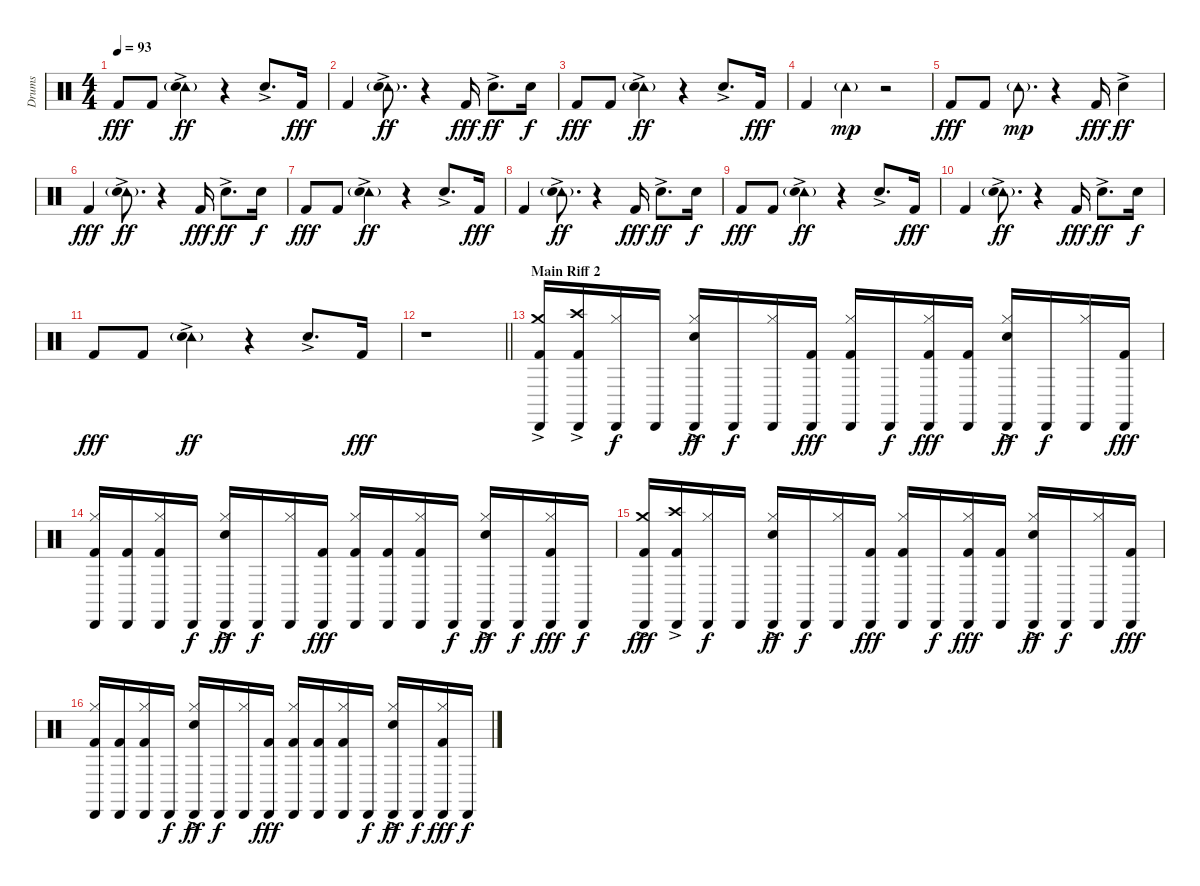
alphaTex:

\track ("Drums" "Drums") {instrument percussion}
\staff {score}
\articulation defaults
\ts (4 4)
\tempo 93
\clef neutral
\ks c "Kick (hit) 2".8{dy fff} "Kick (hit) 2".8
("Tambourine (hit)"{g} "Electric Snare (hit)"{ac}).4{dy ff} r.4 "Electric Snare (hit)"{ac}.8{d} "Kick (hit) 2".16{dy fff} |
"Kick (hit) 2".4 ("Tambourine (hit)"{g} "Electric Snare (hit)"{ac}).8{d dy ff} r.4 "Kick (hit) 2".16{dy fff} "Electric Snare (hit)"{ac}.8{d dy ff} "Electric Snare (hit)".16{dy f} |
"Kick (hit) 2".8{dy fff} "Kick (hit) 2".8 ("Tambourine (hit)"{g} "Electric Snare (hit)"{ac}).4{dy ff} r.4 "Electric Snare (hit)"{ac}.8{d} "Kick (hit) 2".16{dy fff} |
"Kick (hit) 2".4 "Tambourine (hit)"{g}.4{dy mp} r.2 |
"Kick (hit) 2".8{dy fff} "Kick (hit) 2".8 "Tambourine (hit)"{g}.8{d dy mp} r.4 "Kick (hit) 2".16{dy fff} "Electric Snare (hit)"{ac}.4{dy ff} |
"Kick (hit) 2".4{dy fff} ("Tambourine (hit)"{g} "Electric Snare (hit)"{ac}).8{d dy ff} r.4 "Kick (hit) 2".16{dy fff} "Electric Snare (hit)"{ac}.8{d dy ff} "Electric Snare (hit)".16{dy f} |
"Kick (hit) 2".8{dy fff} "Kick (hit) 2".8 ("Tambourine (hit)"{g} "Electric Snare (hit)"{ac}).4{dy ff} r.4 "Electric Snare (hit)"{ac}.8{d} "Kick (hit) 2".16{dy fff} |
"Kick (hit) 2".4 ("Tambourine (hit)"{g} "Electric Snare (hit)"{ac}).8{d dy ff} r.4 "Kick (hit) 2".16{dy fff} "Electric Snare (hit)"{ac}.8{d dy ff} "Electric Snare (hit)".16{dy f} |
"Kick (hit) 2".8{dy fff} "Kick (hit) 2".8 ("Tambourine (hit)"{g} "Electric Snare (hit)"{ac}).4{dy ff} r.4 "Electric Snare (hit)"{ac}.8{d} "Kick (hit) 2".16{dy fff} |
"Kick (hit) 2".4 ("Tambourine (hit)"{g} "Electric Snare (hit)"{ac}).8{d dy ff} r.4 "Kick (hit) 2".16{dy fff} "Electric Snare (hit)"{ac}.8{d dy ff} "Electric Snare (hit)".16{dy f} |
"Kick (hit) 2".8{dy fff} "Kick (hit) 2".8 ("Tambourine (hit)"{g} "Electric Snare (hit)"{ac}).4{dy ff} r.4 "Electric Snare (hit)"{ac}.8{d} "Kick (hit) 2".16{dy fff} |
\barLineRight lightlight
r.1 |
\section ("" "Main Riff 2")
("Crash medium (hit)"{ac} "Cabasa (hit)" "Kick (hit) 2").16 ("Crash high (hit)"{ac} "Cabasa (hit)" "Kick (hit) 2").16 ("Cabasa (hit)" "Hi-Hat (closed)").16{dy f} "Cabasa (hit)".16 ("Cabasa (hit)" "Hi-Hat (closed)" "Electric Snare (hit)"{ac}).16{dy ff} "Cabasa (hit)".16{dy f} ("Cabasa (hit)" "Hi-Hat (closed)").16 ("Cabasa (hit)" "Kick (hit) 2").16{dy fff} ("Cabasa (hit)" "Hi-Hat (closed)" "Kick (hit) 2").16 "Cabasa (hit)".16{dy f} ("Cabasa (hit)" "Hi-Hat (closed)" "Kick (hit) 2").16{dy fff} ("Cabasa (hit)" "Kick (hit) 2").16 ("Cabasa (hit)" "Hi-Hat (closed)" "Electric Snare (hit)"{ac}).16{dy ff} "Cabasa (hit)".16{dy f} ("Cabasa (hit)" "Hi-Hat (closed)").16 ("Cabasa (hit)" "Kick (hit) 2").16{dy fff} |
("Cabasa (hit)" "Hi-Hat (closed)" "Kick (hit) 2").16 ("Cabasa (hit)" "Kick (hit) 2").16 ("Cabasa (hit)" "Hi-Hat (closed)" "Kick (hit) 2").16 "Cabasa (hit)".16{dy f} ("Cabasa (hit)" "Hi-Hat (closed)" "Electric Snare (hit)"{ac}).16{dy ff} "Cabasa (hit)".16{dy f} ("Cabasa (hit)" "Hi-Hat (closed)").16 ("Cabasa (hit)" "Kick (hit) 2").16{dy fff} ("Cabasa (hit)" "Hi-Hat (closed)" "Kick (hit) 2").16 ("Cabasa (hit)" "Kick (hit) 2").16 ("Cabasa (hit)" "Hi-Hat (closed)" "Kick (hit) 2").16 "Cabasa (hit)".16{dy f} ("Cabasa (hit)" "Hi-Hat (closed)" "Electric Snare (hit)"{ac}).16{dy ff} "Cabasa (hit)".16{dy f} ("Cabasa (hit)" "Hi-Hat (closed)" "Kick (hit) 2").16{dy fff} "Cabasa (hit)".16{dy f} |
("Crash medium (hit)"{ac} "Cabasa (hit)" "Kick (hit) 2").16{dy fff} ("Crash high (hit)"{ac} "Cabasa (hit)" "Kick (hit) 2").16 ("Cabasa (hit)" "Hi-Hat (closed)").16{dy f} "Cabasa (hit)".16 ("Cabasa (hit)" "Hi-Hat (closed)" "Electric Snare (hit)"{ac}).16{dy ff} "Cabasa (hit)".16{dy f} ("Cabasa (hit)" "Hi-Hat (closed)").16 ("Cabasa (hit)" "Kick (hit) 2").16{dy fff} ("Cabasa (hit)" "Hi-Hat (closed)" "Kick (hit) 2").16 "Cabasa (hit)".16{dy f} ("Cabasa (hit)" "Hi-Hat (closed)" "Kick (hit) 2").16{dy fff} ("Cabasa (hit)" "Kick (hit) 2").16 ("Cabasa (hit)" "Hi-Hat (closed)" "Electric Snare (hit)"{ac}).16{dy ff} "Cabasa (hit)".16{dy f} ("Cabasa (hit)" "Hi-Hat (closed)").16 ("Cabasa (hit)" "Kick (hit) 2").16{dy fff} |
("Cabasa (hit)" "Hi-Hat (closed)" "Kick (hit) 2").16 ("Cabasa (hit)" "Kick (hit) 2").16 ("Cabasa (hit)" "Hi-Hat (closed)" "Kick (hit) 2").16 "Cabasa (hit)".16{dy f} ("Cabasa (hit)" "Hi-Hat (closed)" "Electric Snare (hit)"{ac}).16{dy ff} "Cabasa (hit)".16{dy f} ("Cabasa (hit)" "Hi-Hat (closed)").16 ("Cabasa (hit)" "Kick (hit) 2").16{dy fff} ("Cabasa (hit)" "Hi-Hat (closed)" "Kick (hit) 2").16 ("Cabasa (hit)" "Kick (hit) 2").16 ("Cabasa (hit)" "Hi-Hat (closed)" "Kick (hit) 2").16 "Cabasa (hit)".16{dy f} ("Cabasa (hit)" "Hi-Hat (closed)" "Electric Snare (hit)"{ac}).16{dy ff} "Cabasa (hit)".16{dy f} ("Cabasa (hit)" "Hi-Hat (closed)" "Kick (hit) 2").16{dy fff} "Cabasa (hit)".16{dy f}
